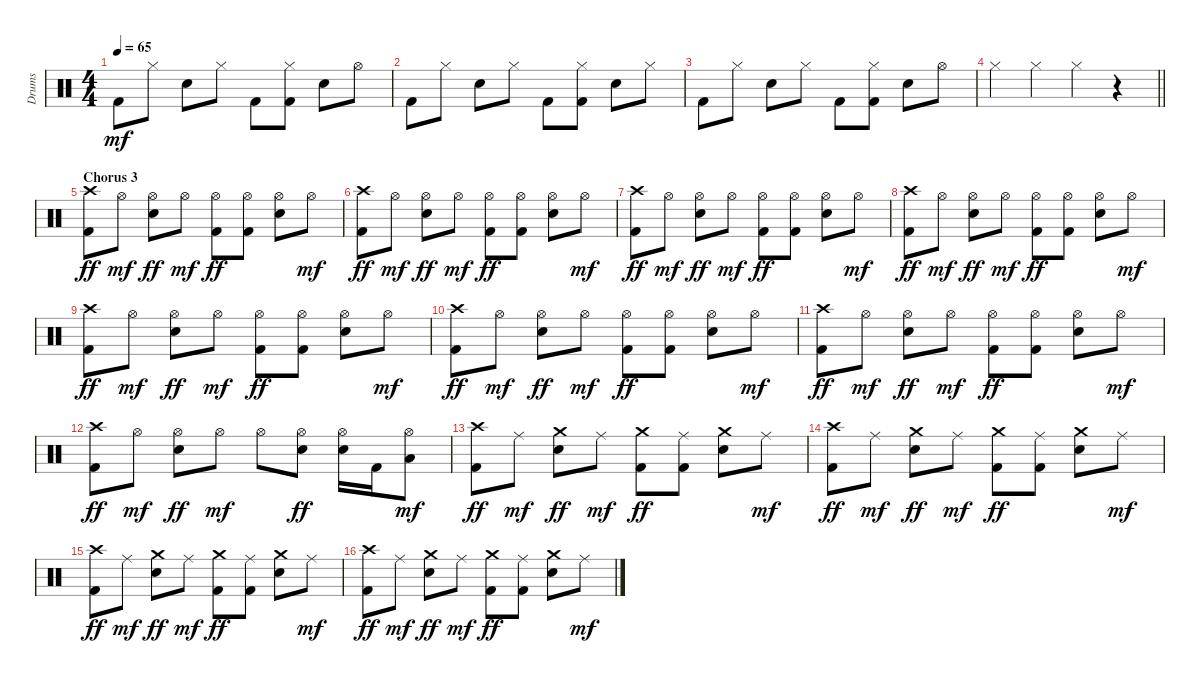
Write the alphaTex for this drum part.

\track ("Drums" "Drums") {instrument percussion}
\staff {score}
\articulation defaults
\ts (4 4)
\tempo 65
\clef neutral
\ks c "Kick (hit) 2".8{dy mf} "Hi-Hat (closed)".8 "Electric Snare (hit)".8 "Hi-Hat (closed)".8 "Kick (hit) 2".8
("Hi-Hat (closed)" "Kick (hit) 2").8 "Electric Snare (hit)".8 "Hi-Hat (open)".8 |
"Kick (hit) 2".8 "Hi-Hat (closed)".8 "Electric Snare (hit)".8 "Hi-Hat (closed)".8 "Kick (hit) 2".8 ("Hi-Hat (closed)" "Kick (hit) 2").8 "Electric Snare (hit)".8 "Hi-Hat (closed)".8 |
"Kick (hit) 2".8 "Hi-Hat (closed)".8 "Electric Snare (hit)".8 "Hi-Hat (closed)".8 "Kick (hit) 2".8 ("Hi-Hat (closed)" "Kick (hit) 2").8 "Electric Snare (hit)".8 "Hi-Hat (open)".8 |
\barLineRight lightlight "Hi-Hat (closed)".4 "Hi-Hat (closed)".4 "Hi-Hat (closed)".4
r.4 |
\section ("" "Chorus 3")
("Crash high (hit)" "Kick (hit) 2").8{dy ff} "Hi-Hat (open)".8{dy mf} ("Hi-Hat (open)" "Electric Snare (hit)").8{dy ff} "Hi-Hat (open)".8{dy mf} ("Hi-Hat (open)" "Kick (hit) 2").8{dy ff} ("Hi-Hat (open)" "Kick (hit) 2").8 ("Hi-Hat (open)" "Electric Snare (hit)").8 "Hi-Hat (open)".8{dy mf} |
("Crash high (hit)" "Kick (hit) 2").8{dy ff} "Hi-Hat (open)".8{dy mf} ("Hi-Hat (open)" "Electric Snare (hit)").8{dy ff} "Hi-Hat (open)".8{dy mf} ("Hi-Hat (open)" "Kick (hit) 2").8{dy ff} ("Hi-Hat (open)" "Kick (hit) 2").8 ("Hi-Hat (open)" "Electric Snare (hit)").8 "Hi-Hat (open)".8{dy mf} |
("Crash high (hit)" "Kick (hit) 2").8{dy ff} "Hi-Hat (open)".8{dy mf} ("Hi-Hat (open)" "Electric Snare (hit)").8{dy ff} "Hi-Hat (open)".8{dy mf} ("Hi-Hat (open)" "Kick (hit) 2").8{dy ff} ("Hi-Hat (open)" "Kick (hit) 2").8 ("Hi-Hat (open)" "Electric Snare (hit)").8 "Hi-Hat (open)".8{dy mf} |
("Crash high (hit)" "Kick (hit) 2").8{dy ff} "Hi-Hat (open)".8{dy mf} ("Hi-Hat (open)" "Electric Snare (hit)").8{dy ff} "Hi-Hat (open)".8{dy mf} ("Hi-Hat (open)" "Kick (hit) 2").8{dy ff} ("Hi-Hat (open)" "Kick (hit) 2").8 ("Hi-Hat (open)" "Electric Snare (hit)").8 "Hi-Hat (open)".8{dy mf} |
("Crash high (hit)" "Kick (hit) 2").8{dy ff} "Hi-Hat (open)".8{dy mf} ("Hi-Hat (open)" "Electric Snare (hit)").8{dy ff} "Hi-Hat (open)".8{dy mf} ("Hi-Hat (open)" "Kick (hit) 2").8{dy ff} ("Hi-Hat (open)" "Kick (hit) 2").8 ("Hi-Hat (open)" "Electric Snare (hit)").8 "Hi-Hat (open)".8{dy mf} |
("Crash high (hit)" "Kick (hit) 2").8{dy ff} "Hi-Hat (open)".8{dy mf} ("Hi-Hat (open)" "Electric Snare (hit)").8{dy ff} "Hi-Hat (open)".8{dy mf} ("Hi-Hat (open)" "Kick (hit) 2").8{dy ff} ("Hi-Hat (open)" "Kick (hit) 2").8 ("Hi-Hat (open)" "Electric Snare (hit)").8 "Hi-Hat (open)".8{dy mf} |
("Crash high (hit)" "Kick (hit) 2").8{dy ff} "Hi-Hat (open)".8{dy mf} ("Hi-Hat (open)" "Electric Snare (hit)").8{dy ff} "Hi-Hat (open)".8{dy mf} ("Hi-Hat (open)" "Kick (hit) 2").8{dy ff} ("Hi-Hat (open)" "Kick (hit) 2").8 ("Hi-Hat (open)" "Electric Snare (hit)").8 "Hi-Hat (open)".8{dy mf} |
("Crash high (hit)" "Kick (hit) 2").8{dy ff} "Hi-Hat (open)".8{dy mf} ("Hi-Hat (open)" "Electric Snare (hit)").8{dy ff} "Hi-Hat (open)".8{dy mf} "Hi-Hat (open)".8 ("Hi-Hat (open)" "Electric Snare (hit)").8{dy ff} ("Hi-Hat (open)" "Electric Snare (hit)").16 "Kick (hit) 2".16 ("Hi-Hat (open)" "Low Tom (hit)").8{dy mf} |
("Crash high (hit)" "Kick (hit) 2").8{dy ff} "Ride (middle)".8{dy mf} ("Crash medium (hit)" "Electric Snare (hit)").8{dy ff} "Ride (middle)".8{dy mf} ("Crash medium (hit)" "Kick (hit) 2").8{dy ff} ("Ride (middle)" "Kick (hit) 2").8 ("Crash medium (hit)" "Electric Snare (hit)").8 "Ride (middle)".8{dy mf} |
("Crash high (hit)" "Kick (hit) 2").8{dy ff} "Ride (middle)".8{dy mf} ("Crash medium (hit)" "Electric Snare (hit)").8{dy ff} "Ride (middle)".8{dy mf} ("Crash medium (hit)" "Kick (hit) 2").8{dy ff} ("Ride (middle)" "Kick (hit) 2").8 ("Crash medium (hit)" "Electric Snare (hit)").8 "Ride (middle)".8{dy mf} |
("Crash high (hit)" "Kick (hit) 2").8{dy ff} "Ride (middle)".8{dy mf} ("Crash medium (hit)" "Electric Snare (hit)").8{dy ff} "Ride (middle)".8{dy mf} ("Crash medium (hit)" "Kick (hit) 2").8{dy ff} ("Ride (middle)" "Kick (hit) 2").8 ("Crash medium (hit)" "Electric Snare (hit)").8 "Ride (middle)".8{dy mf} |
("Crash high (hit)" "Kick (hit) 2").8{dy ff} "Ride (middle)".8{dy mf} ("Crash medium (hit)" "Electric Snare (hit)").8{dy ff} "Ride (middle)".8{dy mf} ("Crash medium (hit)" "Kick (hit) 2").8{dy ff} ("Ride (middle)" "Kick (hit) 2").8 ("Crash medium (hit)" "Electric Snare (hit)").8 "Ride (middle)".8{dy mf}
